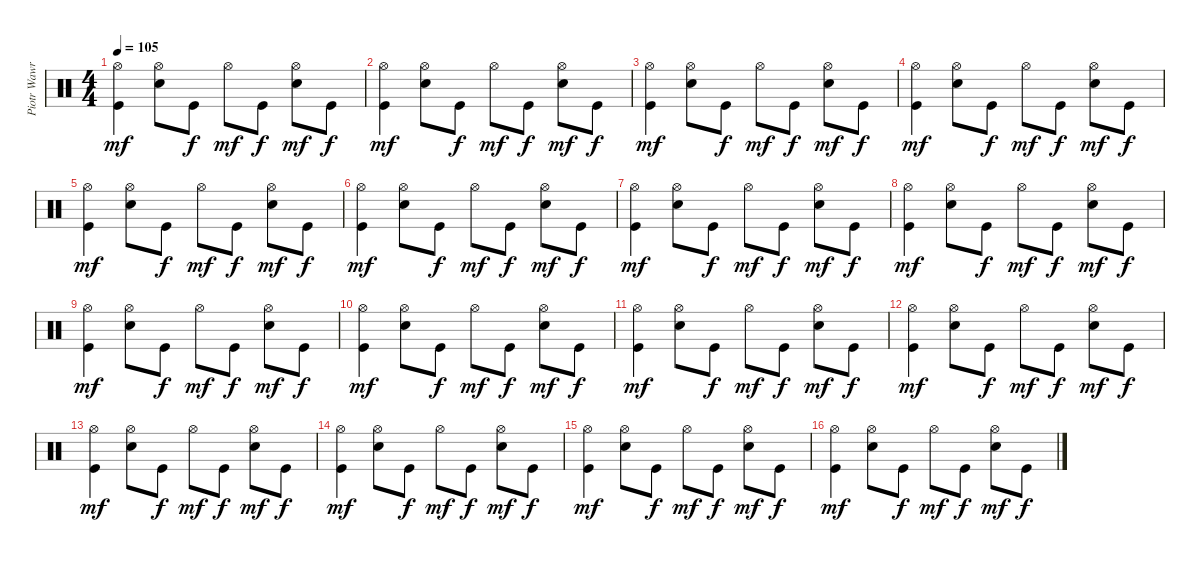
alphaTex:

\track ("Piotr Wawrzeniunk (drums)" "Piotr Wawr") {instrument percussion}
\staff {score}
\articulation defaults
\ts (4 4)
\tempo 105
\clef neutral
\ks c
("Kick (hit)" "Hi-Hat (open)").4{dy mf} ("Electric Snare (hit)" "Hi-Hat (open)").8 "Kick (hit)".8{dy f} "Hi-Hat (open)".8{dy mf} "Kick (hit)".8{dy f} ("Electric Snare (hit)" "Hi-Hat (open)").8{dy mf} "Kick (hit)".8{dy f} |
("Kick (hit)" "Hi-Hat (open)").4{dy mf} ("Electric Snare (hit)" "Hi-Hat (open)").8 "Kick (hit)".8{dy f} "Hi-Hat (open)".8{dy mf} "Kick (hit)".8{dy f} ("Electric Snare (hit)" "Hi-Hat (open)").8{dy mf} "Kick (hit)".8{dy f} |
("Kick (hit)" "Hi-Hat (open)").4{dy mf} ("Electric Snare (hit)" "Hi-Hat (open)").8 "Kick (hit)".8{dy f} "Hi-Hat (open)".8{dy mf} "Kick (hit)".8{dy f} ("Electric Snare (hit)" "Hi-Hat (open)").8{dy mf} "Kick (hit)".8{dy f} |
("Kick (hit)" "Hi-Hat (open)").4{dy mf} ("Electric Snare (hit)" "Hi-Hat (open)").8 "Kick (hit)".8{dy f} "Hi-Hat (open)".8{dy mf} "Kick (hit)".8{dy f} ("Electric Snare (hit)" "Hi-Hat (open)").8{dy mf} "Kick (hit)".8{dy f} |
("Kick (hit)" "Hi-Hat (open)").4{dy mf} ("Electric Snare (hit)" "Hi-Hat (open)").8 "Kick (hit)".8{dy f} "Hi-Hat (open)".8{dy mf} "Kick (hit)".8{dy f} ("Electric Snare (hit)" "Hi-Hat (open)").8{dy mf} "Kick (hit)".8{dy f} |
("Kick (hit)" "Hi-Hat (open)").4{dy mf} ("Electric Snare (hit)" "Hi-Hat (open)").8 "Kick (hit)".8{dy f} "Hi-Hat (open)".8{dy mf} "Kick (hit)".8{dy f} ("Electric Snare (hit)" "Hi-Hat (open)").8{dy mf} "Kick (hit)".8{dy f} |
("Kick (hit)" "Hi-Hat (open)").4{dy mf} ("Electric Snare (hit)" "Hi-Hat (open)").8 "Kick (hit)".8{dy f} "Hi-Hat (open)".8{dy mf} "Kick (hit)".8{dy f} ("Electric Snare (hit)" "Hi-Hat (open)").8{dy mf} "Kick (hit)".8{dy f} |
("Kick (hit)" "Hi-Hat (open)").4{dy mf} ("Electric Snare (hit)" "Hi-Hat (open)").8 "Kick (hit)".8{dy f} "Hi-Hat (open)".8{dy mf} "Kick (hit)".8{dy f} ("Electric Snare (hit)" "Hi-Hat (open)").8{dy mf} "Kick (hit)".8{dy f} |
("Kick (hit)" "Hi-Hat (open)").4{dy mf} ("Electric Snare (hit)" "Hi-Hat (open)").8 "Kick (hit)".8{dy f} "Hi-Hat (open)".8{dy mf} "Kick (hit)".8{dy f} ("Electric Snare (hit)" "Hi-Hat (open)").8{dy mf} "Kick (hit)".8{dy f} |
("Kick (hit)" "Hi-Hat (open)").4{dy mf} ("Electric Snare (hit)" "Hi-Hat (open)").8 "Kick (hit)".8{dy f} "Hi-Hat (open)".8{dy mf} "Kick (hit)".8{dy f} ("Electric Snare (hit)" "Hi-Hat (open)").8{dy mf} "Kick (hit)".8{dy f} |
("Kick (hit)" "Hi-Hat (open)").4{dy mf} ("Electric Snare (hit)" "Hi-Hat (open)").8 "Kick (hit)".8{dy f} "Hi-Hat (open)".8{dy mf} "Kick (hit)".8{dy f} ("Electric Snare (hit)" "Hi-Hat (open)").8{dy mf} "Kick (hit)".8{dy f} |
("Kick (hit)" "Hi-Hat (open)").4{dy mf} ("Electric Snare (hit)" "Hi-Hat (open)").8 "Kick (hit)".8{dy f} "Hi-Hat (open)".8{dy mf} "Kick (hit)".8{dy f} ("Electric Snare (hit)" "Hi-Hat (open)").8{dy mf} "Kick (hit)".8{dy f} |
("Kick (hit)" "Hi-Hat (open)").4{dy mf} ("Electric Snare (hit)" "Hi-Hat (open)").8 "Kick (hit)".8{dy f} "Hi-Hat (open)".8{dy mf} "Kick (hit)".8{dy f} ("Electric Snare (hit)" "Hi-Hat (open)").8{dy mf} "Kick (hit)".8{dy f} |
("Kick (hit)" "Hi-Hat (open)").4{dy mf} ("Electric Snare (hit)" "Hi-Hat (open)").8 "Kick (hit)".8{dy f} "Hi-Hat (open)".8{dy mf} "Kick (hit)".8{dy f} ("Electric Snare (hit)" "Hi-Hat (open)").8{dy mf} "Kick (hit)".8{dy f} |
("Kick (hit)" "Hi-Hat (open)").4{dy mf} ("Electric Snare (hit)" "Hi-Hat (open)").8 "Kick (hit)".8{dy f} "Hi-Hat (open)".8{dy mf} "Kick (hit)".8{dy f} ("Electric Snare (hit)" "Hi-Hat (open)").8{dy mf} "Kick (hit)".8{dy f} |
("Kick (hit)" "Hi-Hat (open)").4{dy mf} ("Electric Snare (hit)" "Hi-Hat (open)").8 "Kick (hit)".8{dy f} "Hi-Hat (open)".8{dy mf} "Kick (hit)".8{dy f} ("Electric Snare (hit)" "Hi-Hat (open)").8{dy mf} "Kick (hit)".8{dy f}
